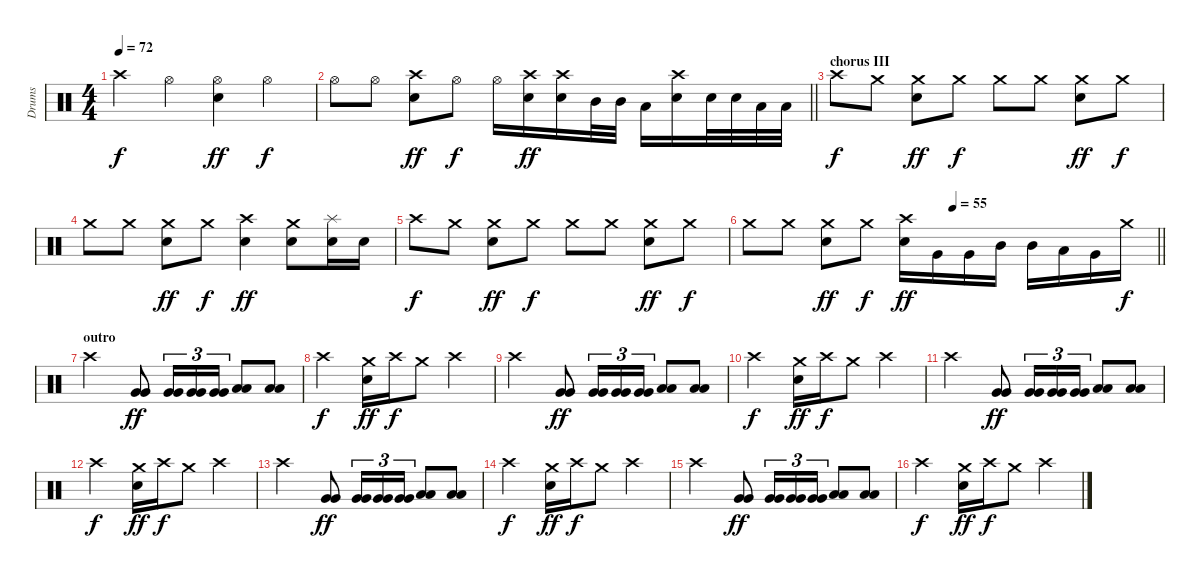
\track ("Drums" "Drums") {instrument percussion}
\staff {score}
\articulation defaults
\ts (4 4)
\tempo 72
\clef neutral
\ks c "Crash high (hit)".4{dy f} "Hi-Hat (open)".4
("Hi-Hat (open)" "Snare (hit) 2").4{dy ff} "Hi-Hat (open)".4{dy f} |
\barLineRight lightlight "Hi-Hat (open)".8 "Hi-Hat (open)".8
("Crash high (hit)" "Snare (hit) 2").8{dy ff} "Hi-Hat (open)".8{dy f} "Hi-Hat (open)".16 ("Crash high (hit)" "Snare (hit) 2").16{dy ff} ("Crash high (hit)" "Snare (hit) 2").16 "Mid Tom (hit)".32 "Mid Tom (hit)".32 "Low Tom (hit)".16 ("Crash high (hit)" "Snare (hit) 2").16 "Snare (hit) 2".32 "Snare (hit) 2".32 "Low Tom (hit)".32 "Low Tom (hit)".32 |
\section ("" "chorus III")
"Crash high (hit)".8{dy f} "Crash medium (hit)".8 ("Crash medium (hit)" "Snare (hit) 2").8{dy ff} "Crash medium (hit)".8{dy f} "Crash medium (hit)".8 "Crash medium (hit)".8 ("Crash medium (hit)" "Snare (hit) 2").8{dy ff} "Crash medium (hit)".8{dy f} |
"Crash medium (hit)".8 "Crash medium (hit)".8 ("Crash medium (hit)" "Snare (hit) 2").8{dy ff} "Crash medium (hit)".8{dy f} ("Crash high (hit)" "Snare (hit) 2").4{dy ff} ("Crash medium (hit)" "Snare (hit) 2").8 ("Splash (hit)" "Snare (hit) 2").16 "Snare (hit) 2".16 |
"Crash high (hit)".8{dy f} "Crash medium (hit)".8 ("Crash medium (hit)" "Snare (hit) 2").8{dy ff} "Crash medium (hit)".8{dy f} "Crash medium (hit)".8 "Crash medium (hit)".8 ("Crash medium (hit)" "Snare (hit) 2").8{dy ff} "Crash medium (hit)".8{dy f} |
\tempo (55 0.5)
\barLineRight lightlight "Crash medium (hit)".8 "Crash medium (hit)".8
("Crash medium (hit)" "Snare (hit) 2").8{dy ff} "Crash medium (hit)".8{dy f} ("Crash high (hit)" "Snare (hit) 2").16{dy ff} "Very Low Tom (hit)".16 "Very Low Tom (hit)".16 "Mid Tom (hit)".16 "Mid Tom (hit)".16 "Low Tom (hit)".16 "Very Low Tom (hit)".16 "Crash medium (hit)".16{dy f} |
\section ("" "outro")
"Crash high (hit)".2 ("Very Low Tom (hit)" "Very Low Tom (hit)").8{dy ff} ("Very Low Tom (hit)" "Very Low Tom (hit)").16{tu (3 2)} ("Very Low Tom (hit)" "Very Low Tom (hit)").16{tu (3 2)} ("Very Low Tom (hit)" "Very Low Tom (hit)").16{tu (3 2)} ("Low Floor Tom (hit)" "Low Floor Tom (hit)").8 ("Low Floor Tom (hit)" "Low Floor Tom (hit)").8 |
"Crash high (hit)".2{dy f} ("Crash medium (hit)" "Snare (hit) 2").16{dy ff} "Crash high (hit)".16{dy f} "Crash medium (hit)".8 "Crash high (hit)".4 |
"Crash high (hit)".2 ("Very Low Tom (hit)" "Very Low Tom (hit)").8{dy ff} ("Very Low Tom (hit)" "Very Low Tom (hit)").16{tu (3 2)} ("Very Low Tom (hit)" "Very Low Tom (hit)").16{tu (3 2)} ("Very Low Tom (hit)" "Very Low Tom (hit)").16{tu (3 2)} ("Low Floor Tom (hit)" "Low Floor Tom (hit)").8 ("Low Floor Tom (hit)" "Low Floor Tom (hit)").8 |
"Crash high (hit)".2{dy f} ("Crash medium (hit)" "Snare (hit) 2").16{dy ff} "Crash high (hit)".16{dy f} "Crash medium (hit)".8 "Crash high (hit)".4 |
"Crash high (hit)".2{volume 7} ("Very Low Tom (hit)" "Very Low Tom (hit)").8{dy ff} ("Very Low Tom (hit)" "Very Low Tom (hit)").16{tu (3 2)} ("Very Low Tom (hit)" "Very Low Tom (hit)").16{tu (3 2)} ("Very Low Tom (hit)" "Very Low Tom (hit)").16{tu (3 2)} ("Low Floor Tom (hit)" "Low Floor Tom (hit)").8 ("Low Floor Tom (hit)" "Low Floor Tom (hit)").8 |
"Crash high (hit)".2{dy f} ("Crash medium (hit)" "Snare (hit) 2").16{dy ff} "Crash high (hit)".16{dy f} "Crash medium (hit)".8 "Crash high (hit)".4 |
"Crash high (hit)".2 ("Very Low Tom (hit)" "Very Low Tom (hit)").8{dy ff} ("Very Low Tom (hit)" "Very Low Tom (hit)").16{tu (3 2)} ("Very Low Tom (hit)" "Very Low Tom (hit)").16{tu (3 2)} ("Very Low Tom (hit)" "Very Low Tom (hit)").16{tu (3 2)} ("Low Floor Tom (hit)" "Low Floor Tom (hit)").8 ("Low Floor Tom (hit)" "Low Floor Tom (hit)").8 |
"Crash high (hit)".2{dy f} ("Crash medium (hit)" "Snare (hit) 2").16{dy ff} "Crash high (hit)".16{dy f} "Crash medium (hit)".8 "Crash high (hit)".4 |
"Crash high (hit)".2{volume 4} ("Very Low Tom (hit)" "Very Low Tom (hit)").8{dy ff} ("Very Low Tom (hit)" "Very Low Tom (hit)").16{tu (3 2)} ("Very Low Tom (hit)" "Very Low Tom (hit)").16{tu (3 2)} ("Very Low Tom (hit)" "Very Low Tom (hit)").16{tu (3 2)} ("Low Floor Tom (hit)" "Low Floor Tom (hit)").8 ("Low Floor Tom (hit)" "Low Floor Tom (hit)").8 |
"Crash high (hit)".2{dy f} ("Crash medium (hit)" "Snare (hit) 2").16{dy ff} "Crash high (hit)".16{dy f} "Crash medium (hit)".8 "Crash high (hit)".4
